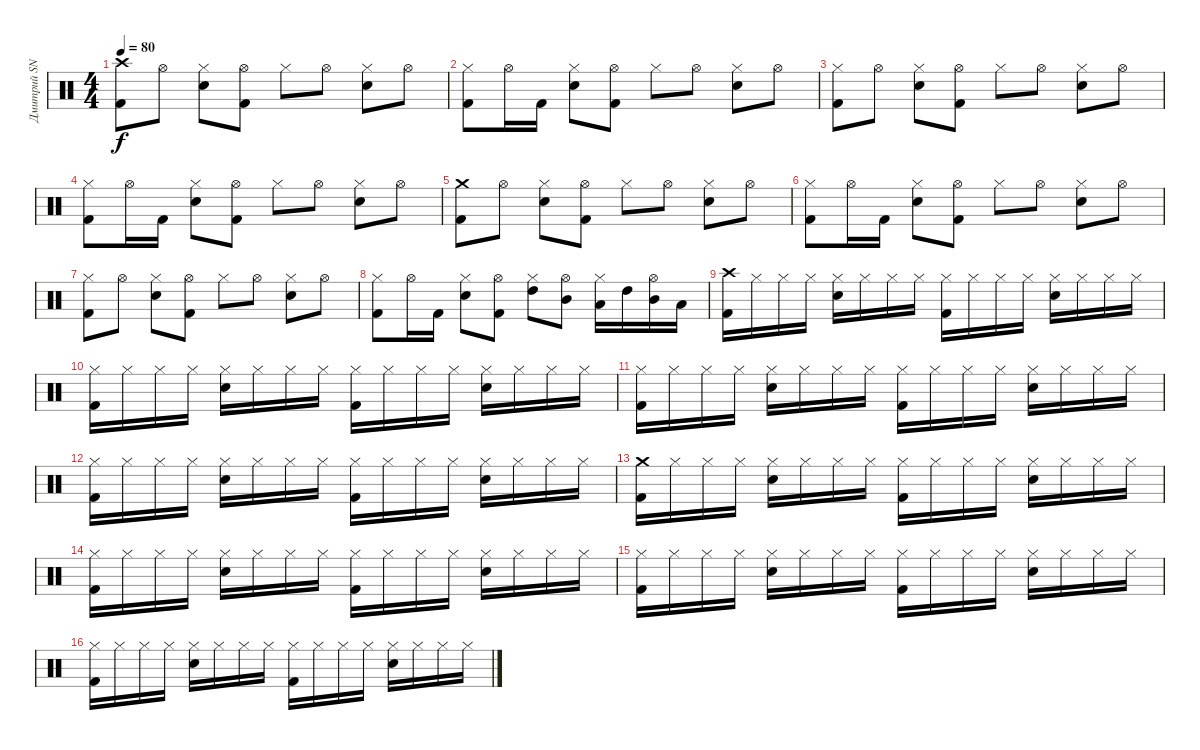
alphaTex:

\track ("Дмитрий SNAKE Хакимов" "Дмитрий SN") {instrument percussion}
\staff {score}
\articulation defaults
\ts (4 4)
\tempo 80
\clef neutral
\ks c
("Crash high (hit)" "Kick (hit) 2").8{dy f} "Hi-Hat (open)".8 ("Hi-Hat (closed)" "Electric Snare (hit)").8 ("Hi-Hat (open)" "Kick (hit) 2").8 "Hi-Hat (closed)".8 "Hi-Hat (open)".8 ("Hi-Hat (closed)" "Electric Snare (hit)").8 "Hi-Hat (open)".8 |
("Hi-Hat (closed)" "Kick (hit) 2").8 "Hi-Hat (open)".16 "Kick (hit) 2".16 ("Hi-Hat (closed)" "Electric Snare (hit)").8 ("Hi-Hat (open)" "Kick (hit) 2").8 "Hi-Hat (closed)".8 "Hi-Hat (open)".8 ("Hi-Hat (closed)" "Electric Snare (hit)").8 "Hi-Hat (open)".8 |
("Hi-Hat (closed)" "Kick (hit) 2").8 "Hi-Hat (open)".8 ("Hi-Hat (closed)" "Electric Snare (hit)").8 ("Hi-Hat (open)" "Kick (hit) 2").8 "Hi-Hat (closed)".8 "Hi-Hat (open)".8 ("Hi-Hat (closed)" "Electric Snare (hit)").8 "Hi-Hat (open)".8 |
("Hi-Hat (closed)" "Kick (hit) 2").8 "Hi-Hat (open)".16 "Kick (hit) 2".16 ("Hi-Hat (closed)" "Electric Snare (hit)").8 ("Hi-Hat (open)" "Kick (hit) 2").8 "Hi-Hat (closed)".8 "Hi-Hat (open)".8 ("Hi-Hat (closed)" "Electric Snare (hit)").8 "Hi-Hat (open)".8 |
("Crash medium (hit)" "Kick (hit) 2").8 "Hi-Hat (open)".8 ("Hi-Hat (closed)" "Electric Snare (hit)").8 ("Hi-Hat (open)" "Kick (hit) 2").8 "Hi-Hat (closed)".8 "Hi-Hat (open)".8 ("Hi-Hat (closed)" "Electric Snare (hit)").8 "Hi-Hat (open)".8 |
("Hi-Hat (closed)" "Kick (hit) 2").8 "Hi-Hat (open)".16 "Kick (hit) 2".16 ("Hi-Hat (closed)" "Electric Snare (hit)").8 ("Hi-Hat (open)" "Kick (hit) 2").8 "Hi-Hat (closed)".8 "Hi-Hat (open)".8 ("Hi-Hat (closed)" "Electric Snare (hit)").8 "Hi-Hat (open)".8 |
("Hi-Hat (closed)" "Kick (hit) 2").8 "Hi-Hat (open)".8 ("Hi-Hat (closed)" "Electric Snare (hit)").8 ("Hi-Hat (open)" "Kick (hit) 2").8 "Hi-Hat (closed)".8 "Hi-Hat (open)".8 ("Hi-Hat (closed)" "Electric Snare (hit)").8 "Hi-Hat (open)".8 |
("Hi-Hat (closed)" "Kick (hit) 2").8 "Hi-Hat (open)".16 "Kick (hit) 2".16 ("Hi-Hat (closed)" "Electric Snare (hit)").8 ("Hi-Hat (open)" "Kick (hit) 2").8 ("Hi-Hat (closed)" "High Tom (hit)").8 ("Hi-Hat (open)" "Mid Tom (hit)").8 ("Hi-Hat (closed)" "Low Tom (hit)").16 "High Tom (hit)".16 ("Hi-Hat (open)" "Mid Tom (hit)").16 "Low Tom (hit)".16 |
("Crash high (hit)" "Kick (hit) 2").16 "Hi-Hat (closed)".16 "Hi-Hat (closed)".16 "Hi-Hat (closed)".16 ("Hi-Hat (closed)" "Electric Snare (hit)").16 "Hi-Hat (closed)".16 "Hi-Hat (closed)".16 "Hi-Hat (closed)".16 ("Hi-Hat (closed)" "Kick (hit) 2").16 "Hi-Hat (closed)".16 "Hi-Hat (closed)".16 "Hi-Hat (closed)".16 ("Hi-Hat (closed)" "Electric Snare (hit)").16 "Hi-Hat (closed)".16 "Hi-Hat (closed)".16 "Hi-Hat (closed)".16 |
("Hi-Hat (closed)" "Kick (hit) 2").16 "Hi-Hat (closed)".16 "Hi-Hat (closed)".16 "Hi-Hat (closed)".16 ("Hi-Hat (closed)" "Electric Snare (hit)").16 "Hi-Hat (closed)".16 "Hi-Hat (closed)".16 "Hi-Hat (closed)".16 ("Hi-Hat (closed)" "Kick (hit) 2").16 "Hi-Hat (closed)".16 "Hi-Hat (closed)".16 "Hi-Hat (closed)".16 ("Hi-Hat (closed)" "Electric Snare (hit)").16 "Hi-Hat (closed)".16 "Hi-Hat (closed)".16 "Hi-Hat (closed)".16 |
("Hi-Hat (closed)" "Kick (hit) 2").16 "Hi-Hat (closed)".16 "Hi-Hat (closed)".16 "Hi-Hat (closed)".16 ("Hi-Hat (closed)" "Electric Snare (hit)").16 "Hi-Hat (closed)".16 "Hi-Hat (closed)".16 "Hi-Hat (closed)".16 ("Hi-Hat (closed)" "Kick (hit) 2").16 "Hi-Hat (closed)".16 "Hi-Hat (closed)".16 "Hi-Hat (closed)".16 ("Hi-Hat (closed)" "Electric Snare (hit)").16 "Hi-Hat (closed)".16 "Hi-Hat (closed)".16 "Hi-Hat (closed)".16 |
("Hi-Hat (closed)" "Kick (hit) 2").16 "Hi-Hat (closed)".16 "Hi-Hat (closed)".16 "Hi-Hat (closed)".16 ("Hi-Hat (closed)" "Electric Snare (hit)").16 "Hi-Hat (closed)".16 "Hi-Hat (closed)".16 "Hi-Hat (closed)".16 ("Hi-Hat (closed)" "Kick (hit) 2").16 "Hi-Hat (closed)".16 "Hi-Hat (closed)".16 "Hi-Hat (closed)".16 ("Hi-Hat (closed)" "Electric Snare (hit)").16 "Hi-Hat (closed)".16 "Hi-Hat (closed)".16 "Hi-Hat (closed)".16 |
("Crash medium (hit)" "Kick (hit) 2").16 "Hi-Hat (closed)".16 "Hi-Hat (closed)".16 "Hi-Hat (closed)".16 ("Hi-Hat (closed)" "Electric Snare (hit)").16 "Hi-Hat (closed)".16 "Hi-Hat (closed)".16 "Hi-Hat (closed)".16 ("Hi-Hat (closed)" "Kick (hit) 2").16 "Hi-Hat (closed)".16 "Hi-Hat (closed)".16 "Hi-Hat (closed)".16 ("Hi-Hat (closed)" "Electric Snare (hit)").16 "Hi-Hat (closed)".16 "Hi-Hat (closed)".16 "Hi-Hat (closed)".16 |
("Hi-Hat (closed)" "Kick (hit) 2").16 "Hi-Hat (closed)".16 "Hi-Hat (closed)".16 "Hi-Hat (closed)".16 ("Hi-Hat (closed)" "Electric Snare (hit)").16 "Hi-Hat (closed)".16 "Hi-Hat (closed)".16 "Hi-Hat (closed)".16 ("Hi-Hat (closed)" "Kick (hit) 2").16 "Hi-Hat (closed)".16 "Hi-Hat (closed)".16 "Hi-Hat (closed)".16 ("Hi-Hat (closed)" "Electric Snare (hit)").16 "Hi-Hat (closed)".16 "Hi-Hat (closed)".16 "Hi-Hat (closed)".16 |
("Hi-Hat (closed)" "Kick (hit) 2").16 "Hi-Hat (closed)".16 "Hi-Hat (closed)".16 "Hi-Hat (closed)".16 ("Hi-Hat (closed)" "Electric Snare (hit)").16 "Hi-Hat (closed)".16 "Hi-Hat (closed)".16 "Hi-Hat (closed)".16 ("Hi-Hat (closed)" "Kick (hit) 2").16 "Hi-Hat (closed)".16 "Hi-Hat (closed)".16 "Hi-Hat (closed)".16 ("Hi-Hat (closed)" "Electric Snare (hit)").16 "Hi-Hat (closed)".16 "Hi-Hat (closed)".16 "Hi-Hat (closed)".16 |
("Hi-Hat (closed)" "Kick (hit) 2").16 "Hi-Hat (closed)".16 "Hi-Hat (closed)".16 "Hi-Hat (closed)".16 ("Hi-Hat (closed)" "Electric Snare (hit)").16 "Hi-Hat (closed)".16 "Hi-Hat (closed)".16 "Hi-Hat (closed)".16 ("Hi-Hat (closed)" "Kick (hit) 2").16 "Hi-Hat (closed)".16 "Hi-Hat (closed)".16 "Hi-Hat (closed)".16 ("Hi-Hat (closed)" "Electric Snare (hit)").16 "Hi-Hat (closed)".16 "Hi-Hat (closed)".16 "Hi-Hat (closed)".16
